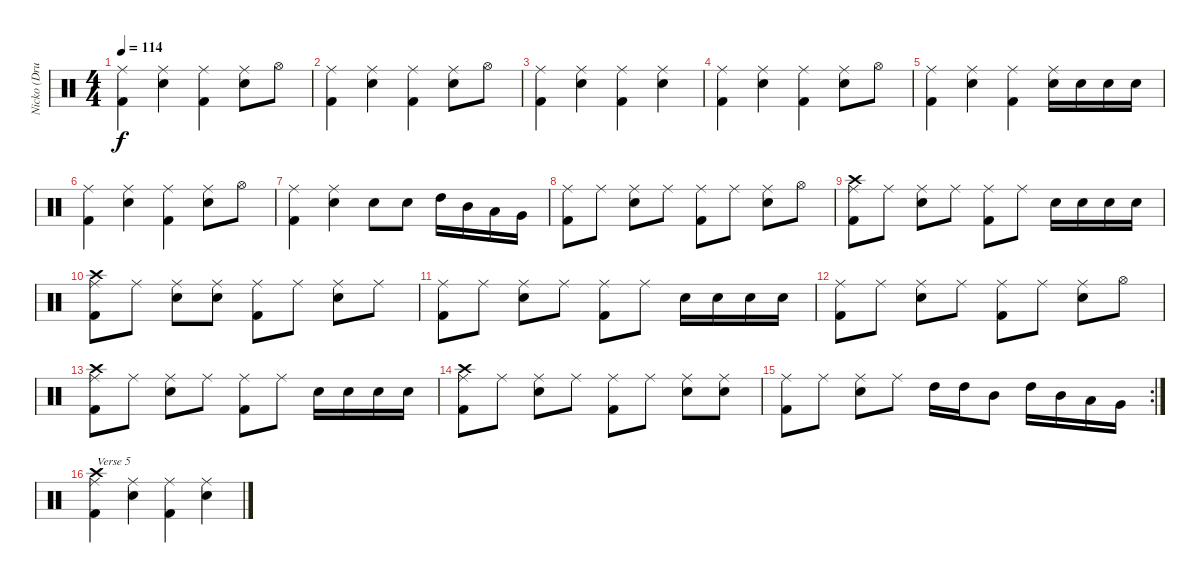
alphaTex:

\track ("Nicko (Drums)" "Nicko (Dru") {instrument percussion}
\staff {score}
\articulation defaults
\ts (4 4)
\tempo 114
\clef neutral
\ks c
("Ride (middle)" "Kick (hit) 2").4{dy f} ("Ride (middle)" "Snare (hit) 2").4 ("Ride (middle)" "Kick (hit) 2").4 ("Ride (middle)" "Snare (hit) 2").8 "Hi-Hat (open)".8 |
("Ride (middle)" "Kick (hit) 2").4 ("Ride (middle)" "Snare (hit) 2").4 ("Ride (middle)" "Kick (hit) 2").4 ("Ride (middle)" "Snare (hit) 2").8 "Hi-Hat (open)".8 |
("Ride (middle)" "Kick (hit) 2").4 ("Ride (middle)" "Snare (hit) 2").4 ("Ride (middle)" "Kick (hit) 2").4 ("Ride (middle)" "Snare (hit) 2").4 |
("Ride (middle)" "Kick (hit) 2").4 ("Ride (middle)" "Snare (hit) 2").4 ("Ride (middle)" "Kick (hit) 2").4 ("Ride (middle)" "Snare (hit) 2").8 "Hi-Hat (open)".8 |
("Ride (middle)" "Kick (hit) 2").4 ("Ride (middle)" "Snare (hit) 2").4 ("Ride (middle)" "Kick (hit) 2").4 ("Ride (middle)" "Snare (hit) 2").16 "Snare (hit) 2".16 "Snare (hit) 2".16 "Snare (hit) 2".16 |
("Ride (middle)" "Kick (hit) 2").4 ("Ride (middle)" "Snare (hit) 2").4 ("Ride (middle)" "Kick (hit) 2").4 ("Ride (middle)" "Snare (hit) 2").8 "Hi-Hat (open)".8 |
("Ride (middle)" "Kick (hit) 2").4 ("Ride (middle)" "Snare (hit) 2").4 "Snare (hit) 2".8 "Snare (hit) 2".8 "High Tom (hit)".16 "Mid Tom (hit)".16 "Low Tom (hit)".16 "Very Low Tom (hit)".16 |
("Ride (middle)" "Kick (hit) 2").8 "Ride (middle)".8 ("Ride (middle)" "Snare (hit) 2").8 "Ride (middle)".8 ("Ride (middle)" "Kick (hit) 2").8 "Ride (middle)".8 ("Ride (middle)" "Snare (hit) 2").8 "Hi-Hat (open)".8 |
("Ride (middle)" "Kick (hit) 2" "Crash high (hit)").8 "Ride (middle)".8 ("Ride (middle)" "Snare (hit) 2").8 "Ride (middle)".8 ("Ride (middle)" "Kick (hit) 2").8 "Ride (middle)".8 "Snare (hit) 2".16 "Snare (hit) 2".16 "Snare (hit) 2".16 "Snare (hit) 2".16 |
("Ride (middle)" "Kick (hit) 2" "Crash high (hit)").8 "Ride (middle)".8 ("Ride (middle)" "Snare (hit) 2").8 ("Ride (middle)" "Snare (hit) 2").8 ("Ride (middle)" "Kick (hit) 2").8 "Ride (middle)".8 ("Ride (middle)" "Snare (hit) 2").8 "Ride (middle)".8 |
("Ride (middle)" "Kick (hit) 2").8 "Ride (middle)".8 ("Ride (middle)" "Snare (hit) 2").8 "Ride (middle)".8 ("Ride (middle)" "Kick (hit) 2").8 "Ride (middle)".8 "Snare (hit) 2".16 "Snare (hit) 2".16 "Snare (hit) 2".16 "Snare (hit) 2".16 |
("Ride (middle)" "Kick (hit) 2").8 "Ride (middle)".8 ("Ride (middle)" "Snare (hit) 2").8 "Ride (middle)".8 ("Ride (middle)" "Kick (hit) 2").8 "Ride (middle)".8 ("Ride (middle)" "Snare (hit) 2").8 "Hi-Hat (open)".8 |
("Ride (middle)" "Kick (hit) 2" "Crash high (hit)").8 "Ride (middle)".8 ("Ride (middle)" "Snare (hit) 2").8 "Ride (middle)".8 ("Ride (middle)" "Kick (hit) 2").8 "Ride (middle)".8 "Snare (hit) 2".16 "Snare (hit) 2".16 "Snare (hit) 2".16 "Snare (hit) 2".16 |
("Ride (middle)" "Kick (hit) 2" "Crash high (hit)").8 "Ride (middle)".8 ("Ride (middle)" "Snare (hit) 2").8 "Ride (middle)".8 ("Ride (middle)" "Kick (hit) 2").8 "Ride (middle)".8 ("Ride (middle)" "Snare (hit) 2").8 ("Ride (middle)" "Snare (hit) 2").8 |
\rc 2
("Ride (middle)" "Kick (hit) 2").8 "Ride (middle)".8 ("Ride (middle)" "Snare (hit) 2").8 "Ride (middle)".8 "High Tom (hit)".16 "High Tom (hit)".16 "Mid Tom (hit)".8 "High Tom (hit)".16 "Mid Tom (hit)".16 "Low Tom (hit)".16 "Very Low Tom (hit)".16 |
("Ride (middle)" "Kick (hit) 2" "Crash high (hit)").4{txt "Verse 5"} ("Ride (middle)" "Snare (hit) 2").4 ("Ride (middle)" "Kick (hit) 2").4 ("Ride (middle)" "Snare (hit) 2").4
